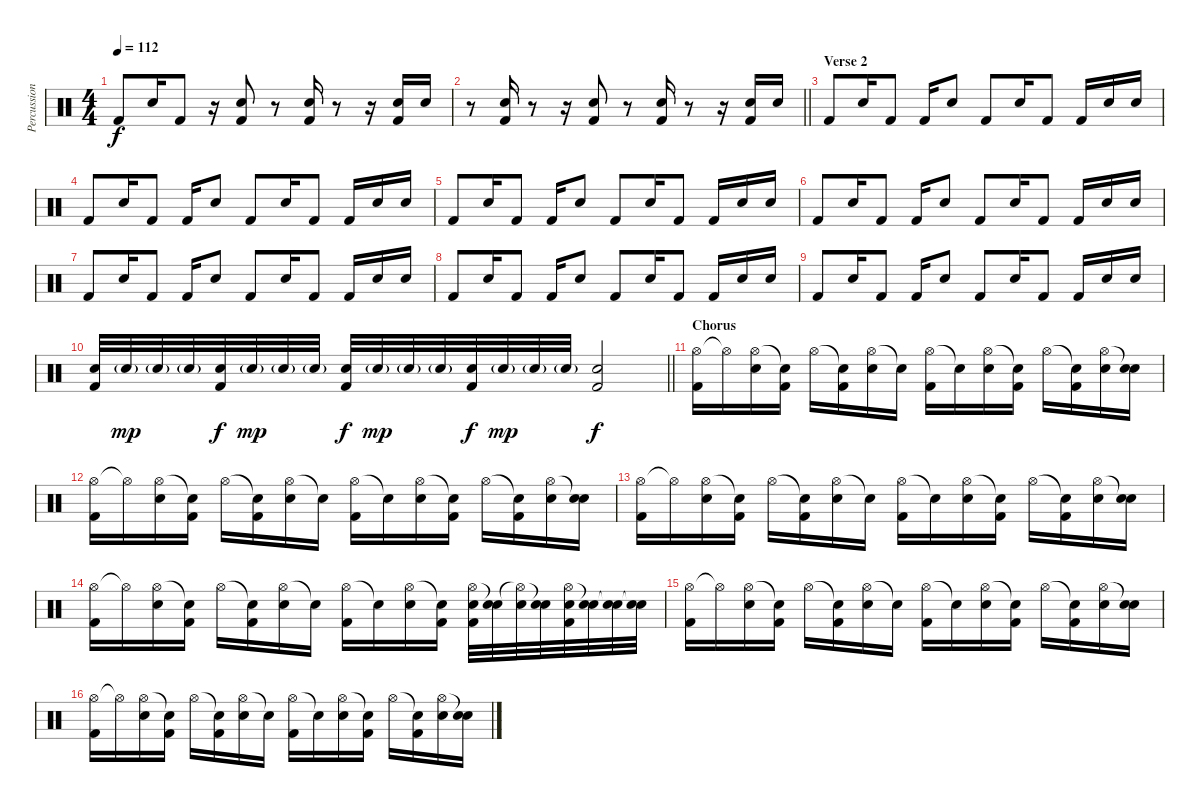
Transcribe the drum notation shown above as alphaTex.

\track ("Percussion" "Percussion") {instrument percussion}
\staff {score}
\articulation defaults
\ts (4 4)
\tempo 112
\clef neutral
\ks c "Kick (hit) 2".8{dy f} "Snare (hit) 2".16 "Kick (hit) 2".8
r.16 ("Snare (hit) 2" "Kick (hit) 2").8 r.8 ("Snare (hit) 2" "Kick (hit) 2").16 r.8 r.16 ("Snare (hit) 2" "Kick (hit) 2").16 "Snare (hit) 2".16 |
\barLineRight lightlight
r.8 ("Snare (hit) 2" "Kick (hit) 2").16 r.8 r.16 ("Snare (hit) 2" "Kick (hit) 2").8 r.8 ("Snare (hit) 2" "Kick (hit) 2").16 r.8 r.16 ("Snare (hit) 2" "Kick (hit) 2").16 "Snare (hit) 2".16 |
\section ("" "Verse 2")
"Kick (hit) 2".8 "Snare (hit) 2".16 "Kick (hit) 2".8 "Kick (hit) 2".16 "Snare (hit) 2".8 "Kick (hit) 2".8 "Snare (hit) 2".16 "Kick (hit) 2".8 "Kick (hit) 2".16 "Snare (hit) 2".16 "Snare (hit) 2".16 |
"Kick (hit) 2".8 "Snare (hit) 2".16 "Kick (hit) 2".8 "Kick (hit) 2".16 "Snare (hit) 2".8 "Kick (hit) 2".8 "Snare (hit) 2".16 "Kick (hit) 2".8 "Kick (hit) 2".16 "Snare (hit) 2".16 "Snare (hit) 2".16 |
"Kick (hit) 2".8 "Snare (hit) 2".16 "Kick (hit) 2".8 "Kick (hit) 2".16 "Snare (hit) 2".8 "Kick (hit) 2".8 "Snare (hit) 2".16 "Kick (hit) 2".8 "Kick (hit) 2".16 "Snare (hit) 2".16 "Snare (hit) 2".16 |
"Kick (hit) 2".8 "Snare (hit) 2".16 "Kick (hit) 2".8 "Kick (hit) 2".16 "Snare (hit) 2".8 "Kick (hit) 2".8 "Snare (hit) 2".16 "Kick (hit) 2".8 "Kick (hit) 2".16 "Snare (hit) 2".16 "Snare (hit) 2".16 |
"Kick (hit) 2".8 "Snare (hit) 2".16 "Kick (hit) 2".8 "Kick (hit) 2".16 "Snare (hit) 2".8 "Kick (hit) 2".8 "Snare (hit) 2".16 "Kick (hit) 2".8 "Kick (hit) 2".16 "Snare (hit) 2".16 "Snare (hit) 2".16 |
"Kick (hit) 2".8 "Snare (hit) 2".16 "Kick (hit) 2".8 "Kick (hit) 2".16 "Snare (hit) 2".8 "Kick (hit) 2".8 "Snare (hit) 2".16 "Kick (hit) 2".8 "Kick (hit) 2".16 "Snare (hit) 2".16 "Snare (hit) 2".16 |
"Kick (hit) 2".8 "Snare (hit) 2".16 "Kick (hit) 2".8 "Kick (hit) 2".16 "Snare (hit) 2".8 "Kick (hit) 2".8 "Snare (hit) 2".16 "Kick (hit) 2".8 "Kick (hit) 2".16 "Snare (hit) 2".16 "Snare (hit) 2".16 |
\barLineRight lightlight
("Snare (hit) 2" "Kick (hit) 2").32 "Snare (hit) 2"{g}.32{dy mp} "Snare (hit) 2"{g}.32 "Snare (hit) 2"{g}.32 ("Snare (hit) 2" "Kick (hit) 2").32{dy f} "Snare (hit) 2"{g}.32{dy mp} "Snare (hit) 2"{g}.32 "Snare (hit) 2"{g}.32 ("Snare (hit) 2" "Kick (hit) 2").32{dy f} "Snare (hit) 2"{g}.32{dy mp} "Snare (hit) 2"{g}.32 "Snare (hit) 2"{g}.32 ("Snare (hit) 2" "Kick (hit) 2").32{dy f} "Snare (hit) 2"{g}.32{dy mp} "Snare (hit) 2"{g}.32 "Snare (hit) 2"{g}.32 ("Snare (hit) 2" "Kick (hit) 2").2{dy f} |
\section ("" "Chorus")
("Hi-Hat (open)" "Kick (hit) 2").16 "Hi-Hat (open)"{t}.16 ("Hi-Hat (open)" "Snare (hit) 2").16 ("Snare (hit)"{t} "Kick (hit) 2").16 "Hi-Hat (open)".16 ("Snare (hit)"{t} "Kick (hit) 2").16 ("Hi-Hat (open)" "Snare (hit) 2").16 "Snare (hit)"{t}.16 ("Hi-Hat (open)" "Kick (hit) 2").16 "Snare (hit)"{t}.16 ("Hi-Hat (open)" "Snare (hit) 2").16 ("Snare (hit)"{t} "Kick (hit) 2").16 "Hi-Hat (open)".16 ("Snare (hit)"{t} "Kick (hit) 2").16 ("Hi-Hat (open)" "Snare (hit) 2").16 ("Snare (hit)"{t} "Snare (hit) 2").16 |
("Hi-Hat (open)" "Kick (hit) 2").16 "Hi-Hat (open)"{t}.16 ("Hi-Hat (open)" "Snare (hit) 2").16 ("Snare (hit)"{t} "Kick (hit) 2").16 "Hi-Hat (open)".16 ("Snare (hit)"{t} "Kick (hit) 2").16 ("Hi-Hat (open)" "Snare (hit) 2").16 "Snare (hit)"{t}.16 ("Hi-Hat (open)" "Kick (hit) 2").16 "Snare (hit)"{t}.16 ("Hi-Hat (open)" "Snare (hit) 2").16 ("Snare (hit)"{t} "Kick (hit) 2").16 "Hi-Hat (open)".16 ("Snare (hit)"{t} "Kick (hit) 2").16 ("Hi-Hat (open)" "Snare (hit) 2").16 ("Snare (hit)"{t} "Snare (hit) 2").16 |
("Hi-Hat (open)" "Kick (hit) 2").16 "Hi-Hat (open)"{t}.16 ("Hi-Hat (open)" "Snare (hit) 2").16 ("Snare (hit)"{t} "Kick (hit) 2").16 "Hi-Hat (open)".16 ("Snare (hit)"{t} "Kick (hit) 2").16 ("Hi-Hat (open)" "Snare (hit) 2").16 "Snare (hit)"{t}.16 ("Hi-Hat (open)" "Kick (hit) 2").16 "Snare (hit)"{t}.16 ("Hi-Hat (open)" "Snare (hit) 2").16 ("Snare (hit)"{t} "Kick (hit) 2").16 "Hi-Hat (open)".16 ("Snare (hit)"{t} "Kick (hit) 2").16 ("Hi-Hat (open)" "Snare (hit) 2").16 ("Snare (hit)"{t} "Snare (hit) 2").16 |
("Hi-Hat (open)" "Kick (hit) 2").16 "Hi-Hat (open)"{t}.16 ("Hi-Hat (open)" "Snare (hit) 2").16 ("Snare (hit)"{t} "Kick (hit) 2").16 "Hi-Hat (open)".16 ("Snare (hit)"{t} "Kick (hit) 2").16 ("Hi-Hat (open)" "Snare (hit) 2").16 "Snare (hit)"{t}.16 ("Hi-Hat (open)" "Kick (hit) 2").16 "Snare (hit)"{t}.16 ("Hi-Hat (open)" "Snare (hit) 2").16 ("Snare (hit)"{t} "Kick (hit) 2").16 ("Hi-Hat (open)" "Snare (hit) 2" "Kick (hit) 2").32 ("Snare (hit)"{t} "Snare (hit) 2").32 ("Hi-Hat (open)"{t} "Snare (hit) 2").32 ("Snare (hit)"{t} "Snare (hit) 2").32 ("Hi-Hat (open)" "Snare (hit) 2" "Kick (hit) 2").32 ("Snare (hit)"{t} "Snare (hit) 2").32 ("Snare (hit)"{t} "Snare (hit) 2").32 ("Snare (hit)"{t} "Snare (hit) 2").32 |
("Hi-Hat (open)" "Kick (hit) 2").16 "Hi-Hat (open)"{t}.16 ("Hi-Hat (open)" "Snare (hit) 2").16 ("Snare (hit)"{t} "Kick (hit) 2").16 "Hi-Hat (open)".16 ("Snare (hit)"{t} "Kick (hit) 2").16 ("Hi-Hat (open)" "Snare (hit) 2").16 "Snare (hit)"{t}.16 ("Hi-Hat (open)" "Kick (hit) 2").16 "Snare (hit)"{t}.16 ("Hi-Hat (open)" "Snare (hit) 2").16 ("Snare (hit)"{t} "Kick (hit) 2").16 "Hi-Hat (open)".16 ("Snare (hit)"{t} "Kick (hit) 2").16 ("Hi-Hat (open)" "Snare (hit) 2").16 ("Snare (hit)"{t} "Snare (hit) 2").16 |
("Hi-Hat (open)" "Kick (hit) 2").16 "Hi-Hat (open)"{t}.16 ("Hi-Hat (open)" "Snare (hit) 2").16 ("Snare (hit)"{t} "Kick (hit) 2").16 "Hi-Hat (open)".16 ("Snare (hit)"{t} "Kick (hit) 2").16 ("Hi-Hat (open)" "Snare (hit) 2").16 "Snare (hit)"{t}.16 ("Hi-Hat (open)" "Kick (hit) 2").16 "Snare (hit)"{t}.16 ("Hi-Hat (open)" "Snare (hit) 2").16 ("Snare (hit)"{t} "Kick (hit) 2").16 "Hi-Hat (open)".16 ("Snare (hit)"{t} "Kick (hit) 2").16 ("Hi-Hat (open)" "Snare (hit) 2").16 ("Snare (hit)"{t} "Snare (hit) 2").16
